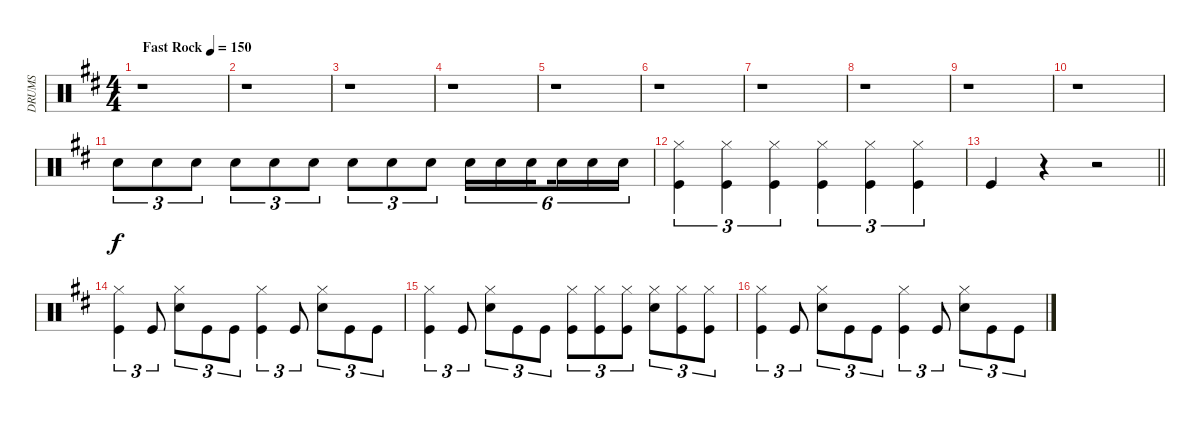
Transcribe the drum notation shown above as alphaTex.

\track ("DRUMS" "DRUMS") {instrument percussion}
\staff {score}
\articulation defaults
\ts (4 4)
\tempo (150 "Fast Rock")
\clef neutral
\ks d
r.1{dy f} |
r.1 |
r.1 |
r.1 |
r.1 |
r.1 |
r.1 |
r.1 |
r.1 |
r.1 |
"Snare (hit) 2".8{tu (3 2)} "Snare (hit) 2".8{tu (3 2)} "Snare (hit) 2".8{tu (3 2)} "Snare (hit) 2".8{tu (3 2)} "Snare (hit) 2".8{tu (3 2)} "Snare (hit) 2".8{tu (3 2)} "Snare (hit) 2".8{tu (3 2)} "Snare (hit) 2".8{tu (3 2)} "Snare (hit) 2".8{tu (3 2)} "Snare (hit) 2".16{tu (6 4)} "Snare (hit) 2".16{tu (6 4)} "Snare (hit) 2".16{tu (6 4) beam splitsecondary} "Snare (hit) 2".16{tu (6 4)} "Snare (hit) 2".16{tu (6 4)} "Snare (hit) 2".16{tu (6 4)} |
("Hi-Hat (closed)" "Kick (hit)").4{tu (3 2)} ("Hi-Hat (closed)" "Kick (hit)").4{tu (3 2)} ("Hi-Hat (closed)" "Kick (hit)").4{tu (3 2)} ("Hi-Hat (closed)" "Kick (hit)").4{tu (3 2)} ("Hi-Hat (closed)" "Kick (hit)").4{tu (3 2)} ("Hi-Hat (closed)" "Kick (hit)").4{tu (3 2)} |
\barLineRight lightlight "Kick (hit)".4
r.4 r.2 |
("Hi-Hat (closed)" "Kick (hit)").4{tu (3 2)} "Kick (hit)".8{tu (3 2)} ("Hi-Hat (closed)" "Snare (hit) 2").8{tu (3 2)} "Kick (hit)".8{tu (3 2)} "Kick (hit)".8{tu (3 2)} ("Hi-Hat (closed)" "Kick (hit)").4{tu (3 2)} "Kick (hit)".8{tu (3 2)} ("Hi-Hat (closed)" "Snare (hit) 2").8{tu (3 2)} "Kick (hit)".8{tu (3 2)} "Kick (hit)".8{tu (3 2)} |
("Hi-Hat (closed)" "Kick (hit)").4{tu (3 2)} "Kick (hit)".8{tu (3 2)} ("Hi-Hat (closed)" "Snare (hit) 2").8{tu (3 2)} "Kick (hit)".8{tu (3 2)} "Kick (hit)".8{tu (3 2)} ("Hi-Hat (closed)" "Kick (hit)").8{tu (3 2)} ("Hi-Hat (closed)" "Kick (hit)").8{tu (3 2)} ("Hi-Hat (closed)" "Kick (hit)").8{tu (3 2)} ("Hi-Hat (closed)" "Snare (hit) 2").8{tu (3 2)} ("Hi-Hat (closed)" "Kick (hit)").8{tu (3 2)} ("Hi-Hat (closed)" "Kick (hit)").8{tu (3 2)} |
("Hi-Hat (closed)" "Kick (hit)").4{tu (3 2)} "Kick (hit)".8{tu (3 2)} ("Hi-Hat (closed)" "Snare (hit) 2").8{tu (3 2)} "Kick (hit)".8{tu (3 2)} "Kick (hit)".8{tu (3 2)} ("Hi-Hat (closed)" "Kick (hit)").4{tu (3 2)} "Kick (hit)".8{tu (3 2)} ("Hi-Hat (closed)" "Snare (hit) 2").8{tu (3 2)} "Kick (hit)".8{tu (3 2)} "Kick (hit)".8{tu (3 2)}
